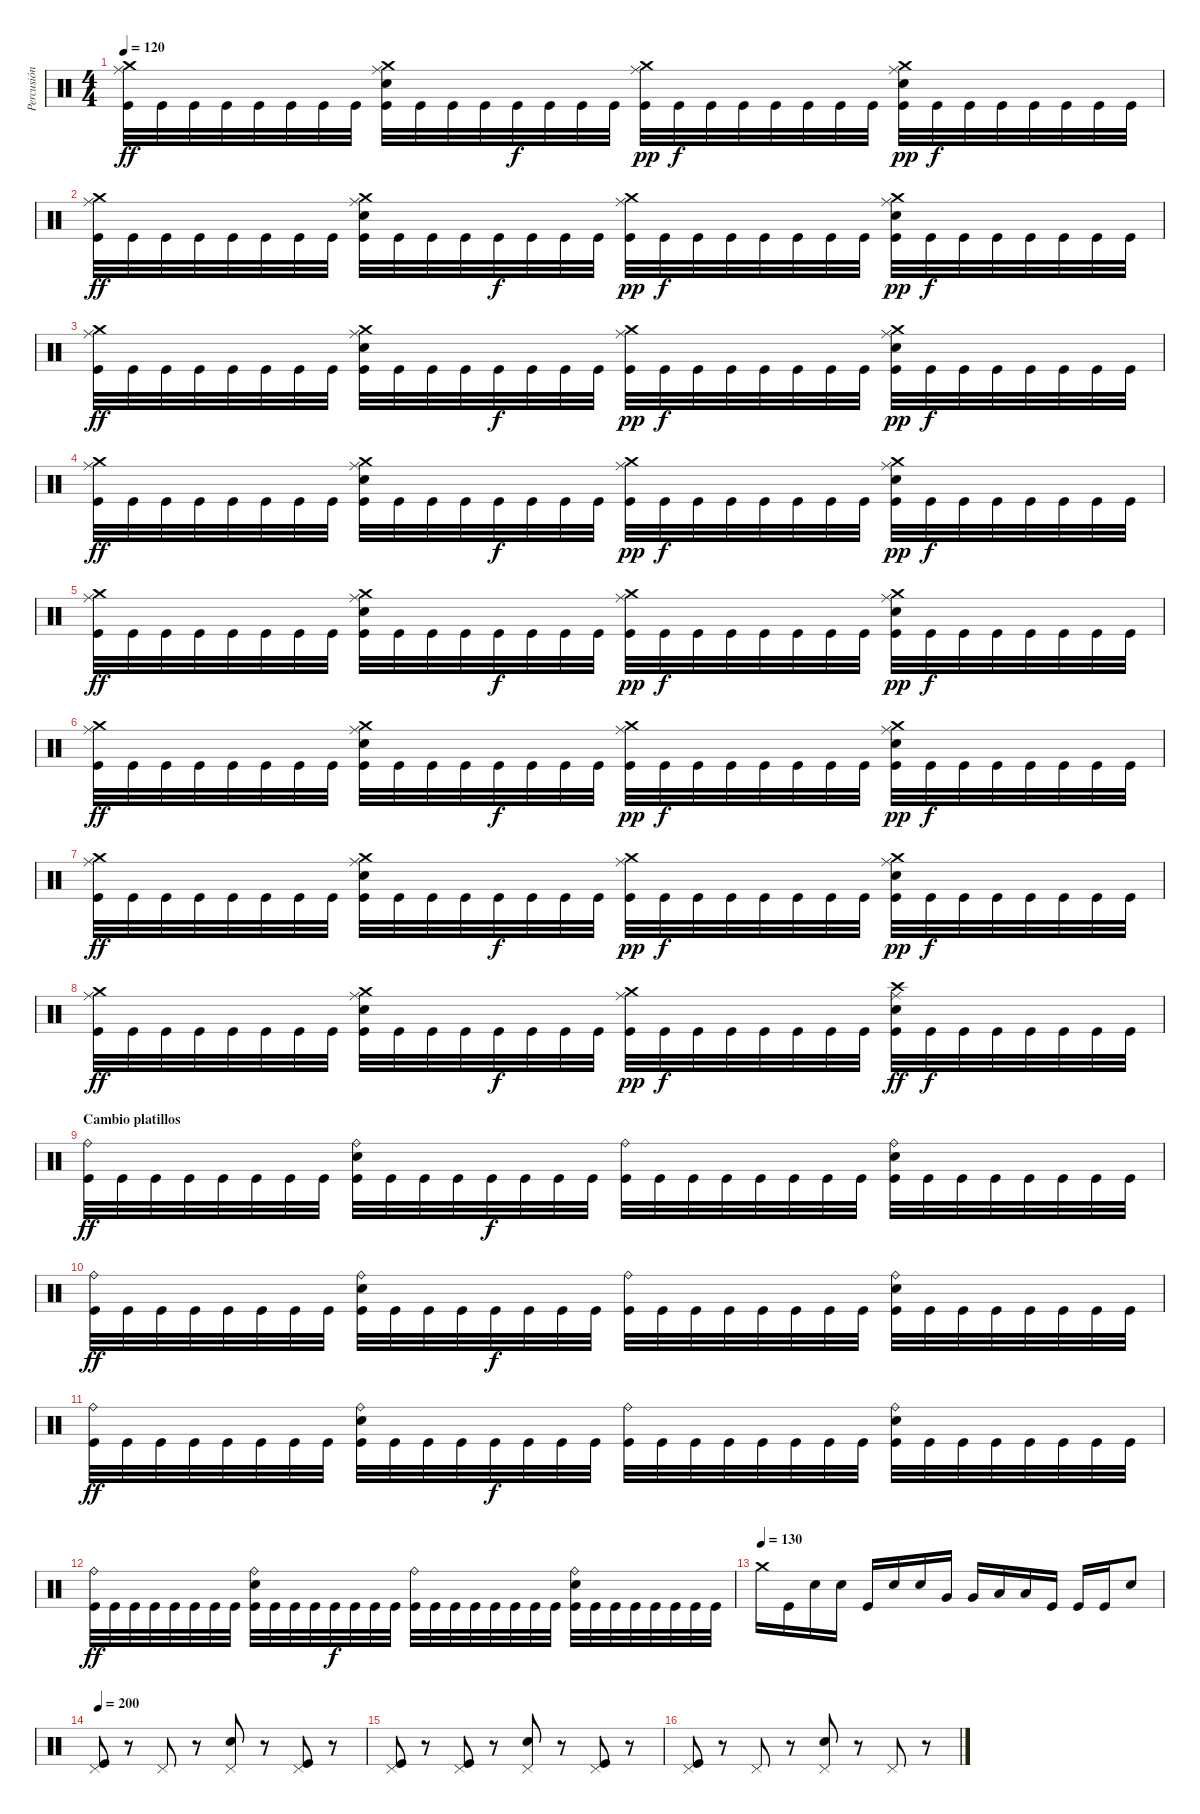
\track ("Percusión" "Percusión") {instrument percussion}
\staff {score}
\articulation defaults
\ts (4 4)
\tempo 120
\clef neutral
\ks c
("Crash medium (hit)" "Ride (middle)" "Kick (hit)").32{dy ff} "Kick (hit)".32 "Kick (hit)".32 "Kick (hit)".32 "Kick (hit)".32 "Kick (hit)".32 "Kick (hit)".32 "Kick (hit)".32 ("Crash medium (hit)" "Ride (middle)" "Kick (hit)" "Snare (hit) 2").32 "Kick (hit)".32 "Kick (hit)".32 "Kick (hit)".32 "Kick (hit)".32{dy f} "Kick (hit)".32 "Kick (hit)".32 "Kick (hit)".32 ("Crash medium (hit)" "Ride (middle)" "Kick (hit)").32{dy pp} "Kick (hit)".32{dy f} "Kick (hit)".32 "Kick (hit)".32 "Kick (hit)".32 "Kick (hit)".32 "Kick (hit)".32 "Kick (hit)".32 ("Crash medium (hit)" "Ride (middle)" "Kick (hit)" "Snare (hit) 2").32{dy pp} "Kick (hit)".32{dy f} "Kick (hit)".32 "Kick (hit)".32 "Kick (hit)".32 "Kick (hit)".32 "Kick (hit)".32 "Kick (hit)".32 |
("Crash medium (hit)" "Ride (middle)" "Kick (hit)").32{dy ff} "Kick (hit)".32 "Kick (hit)".32 "Kick (hit)".32 "Kick (hit)".32 "Kick (hit)".32 "Kick (hit)".32 "Kick (hit)".32 ("Crash medium (hit)" "Ride (middle)" "Kick (hit)" "Snare (hit) 2").32 "Kick (hit)".32 "Kick (hit)".32 "Kick (hit)".32 "Kick (hit)".32{dy f} "Kick (hit)".32 "Kick (hit)".32 "Kick (hit)".32 ("Crash medium (hit)" "Ride (middle)" "Kick (hit)").32{dy pp} "Kick (hit)".32{dy f} "Kick (hit)".32 "Kick (hit)".32 "Kick (hit)".32 "Kick (hit)".32 "Kick (hit)".32 "Kick (hit)".32 ("Crash medium (hit)" "Ride (middle)" "Kick (hit)" "Snare (hit) 2").32{dy pp} "Kick (hit)".32{dy f} "Kick (hit)".32 "Kick (hit)".32 "Kick (hit)".32 "Kick (hit)".32 "Kick (hit)".32 "Kick (hit)".32 |
("Crash medium (hit)" "Ride (middle)" "Kick (hit)").32{dy ff} "Kick (hit)".32 "Kick (hit)".32 "Kick (hit)".32 "Kick (hit)".32 "Kick (hit)".32 "Kick (hit)".32 "Kick (hit)".32 ("Crash medium (hit)" "Ride (middle)" "Kick (hit)" "Snare (hit) 2").32 "Kick (hit)".32 "Kick (hit)".32 "Kick (hit)".32 "Kick (hit)".32{dy f} "Kick (hit)".32 "Kick (hit)".32 "Kick (hit)".32 ("Crash medium (hit)" "Ride (middle)" "Kick (hit)").32{dy pp} "Kick (hit)".32{dy f} "Kick (hit)".32 "Kick (hit)".32 "Kick (hit)".32 "Kick (hit)".32 "Kick (hit)".32 "Kick (hit)".32 ("Crash medium (hit)" "Ride (middle)" "Kick (hit)" "Snare (hit) 2").32{dy pp} "Kick (hit)".32{dy f} "Kick (hit)".32 "Kick (hit)".32 "Kick (hit)".32 "Kick (hit)".32 "Kick (hit)".32 "Kick (hit)".32 |
("Crash medium (hit)" "Ride (middle)" "Kick (hit)").32{dy ff} "Kick (hit)".32 "Kick (hit)".32 "Kick (hit)".32 "Kick (hit)".32 "Kick (hit)".32 "Kick (hit)".32 "Kick (hit)".32 ("Crash medium (hit)" "Ride (middle)" "Kick (hit)" "Snare (hit) 2").32 "Kick (hit)".32 "Kick (hit)".32 "Kick (hit)".32 "Kick (hit)".32{dy f} "Kick (hit)".32 "Kick (hit)".32 "Kick (hit)".32 ("Crash medium (hit)" "Ride (middle)" "Kick (hit)").32{dy pp} "Kick (hit)".32{dy f} "Kick (hit)".32 "Kick (hit)".32 "Kick (hit)".32 "Kick (hit)".32 "Kick (hit)".32 "Kick (hit)".32 ("Crash medium (hit)" "Ride (middle)" "Kick (hit)" "Snare (hit) 2").32{dy pp} "Kick (hit)".32{dy f} "Kick (hit)".32 "Kick (hit)".32 "Kick (hit)".32 "Kick (hit)".32 "Kick (hit)".32 "Kick (hit)".32 |
("Crash medium (hit)" "Ride (middle)" "Kick (hit)").32{dy ff} "Kick (hit)".32 "Kick (hit)".32 "Kick (hit)".32 "Kick (hit)".32 "Kick (hit)".32 "Kick (hit)".32 "Kick (hit)".32 ("Crash medium (hit)" "Ride (middle)" "Kick (hit)" "Snare (hit) 2").32 "Kick (hit)".32 "Kick (hit)".32 "Kick (hit)".32 "Kick (hit)".32{dy f} "Kick (hit)".32 "Kick (hit)".32 "Kick (hit)".32 ("Crash medium (hit)" "Ride (middle)" "Kick (hit)").32{dy pp} "Kick (hit)".32{dy f} "Kick (hit)".32 "Kick (hit)".32 "Kick (hit)".32 "Kick (hit)".32 "Kick (hit)".32 "Kick (hit)".32 ("Crash medium (hit)" "Ride (middle)" "Kick (hit)" "Snare (hit) 2").32{dy pp} "Kick (hit)".32{dy f} "Kick (hit)".32 "Kick (hit)".32 "Kick (hit)".32 "Kick (hit)".32 "Kick (hit)".32 "Kick (hit)".32 |
("Crash medium (hit)" "Ride (middle)" "Kick (hit)").32{dy ff} "Kick (hit)".32 "Kick (hit)".32 "Kick (hit)".32 "Kick (hit)".32 "Kick (hit)".32 "Kick (hit)".32 "Kick (hit)".32 ("Crash medium (hit)" "Ride (middle)" "Kick (hit)" "Snare (hit) 2").32 "Kick (hit)".32 "Kick (hit)".32 "Kick (hit)".32 "Kick (hit)".32{dy f} "Kick (hit)".32 "Kick (hit)".32 "Kick (hit)".32 ("Crash medium (hit)" "Ride (middle)" "Kick (hit)").32{dy pp} "Kick (hit)".32{dy f} "Kick (hit)".32 "Kick (hit)".32 "Kick (hit)".32 "Kick (hit)".32 "Kick (hit)".32 "Kick (hit)".32 ("Crash medium (hit)" "Ride (middle)" "Kick (hit)" "Snare (hit) 2").32{dy pp} "Kick (hit)".32{dy f} "Kick (hit)".32 "Kick (hit)".32 "Kick (hit)".32 "Kick (hit)".32 "Kick (hit)".32 "Kick (hit)".32 |
("Crash medium (hit)" "Ride (middle)" "Kick (hit)").32{dy ff} "Kick (hit)".32 "Kick (hit)".32 "Kick (hit)".32 "Kick (hit)".32 "Kick (hit)".32 "Kick (hit)".32 "Kick (hit)".32 ("Crash medium (hit)" "Ride (middle)" "Kick (hit)" "Snare (hit) 2").32 "Kick (hit)".32 "Kick (hit)".32 "Kick (hit)".32 "Kick (hit)".32{dy f} "Kick (hit)".32 "Kick (hit)".32 "Kick (hit)".32 ("Crash medium (hit)" "Ride (middle)" "Kick (hit)").32{dy pp} "Kick (hit)".32{dy f} "Kick (hit)".32 "Kick (hit)".32 "Kick (hit)".32 "Kick (hit)".32 "Kick (hit)".32 "Kick (hit)".32 ("Crash medium (hit)" "Ride (middle)" "Kick (hit)" "Snare (hit) 2").32{dy pp} "Kick (hit)".32{dy f} "Kick (hit)".32 "Kick (hit)".32 "Kick (hit)".32 "Kick (hit)".32 "Kick (hit)".32 "Kick (hit)".32 |
("Crash medium (hit)" "Ride (middle)" "Kick (hit)").32{dy ff} "Kick (hit)".32 "Kick (hit)".32 "Kick (hit)".32 "Kick (hit)".32 "Kick (hit)".32 "Kick (hit)".32 "Kick (hit)".32 ("Crash medium (hit)" "Ride (middle)" "Kick (hit)" "Snare (hit) 2").32 "Kick (hit)".32 "Kick (hit)".32 "Kick (hit)".32 "Kick (hit)".32{dy f} "Kick (hit)".32 "Kick (hit)".32 "Kick (hit)".32 ("Crash medium (hit)" "Ride (middle)" "Kick (hit)").32{dy pp} "Kick (hit)".32{dy f} "Kick (hit)".32 "Kick (hit)".32 "Kick (hit)".32 "Kick (hit)".32 "Kick (hit)".32 "Kick (hit)".32 ("Crash high (hit)" "Ride (middle)" "Kick (hit)" "Snare (hit) 2").32{dy ff} "Kick (hit)".32{dy f} "Kick (hit)".32 "Kick (hit)".32 "Kick (hit)".32 "Kick (hit)".32 "Kick (hit)".32 "Kick (hit)".32 |
\section ("" "Cambio platillos")
("Ride (bell)" "Kick (hit)").32{dy ff} "Kick (hit)".32 "Kick (hit)".32 "Kick (hit)".32 "Kick (hit)".32 "Kick (hit)".32 "Kick (hit)".32 "Kick (hit)".32 ("Ride (bell)" "Kick (hit)" "Snare (hit) 2").32 "Kick (hit)".32 "Kick (hit)".32 "Kick (hit)".32 "Kick (hit)".32{dy f} "Kick (hit)".32 "Kick (hit)".32 "Kick (hit)".32 ("Ride (bell)" "Kick (hit)").32 "Kick (hit)".32 "Kick (hit)".32 "Kick (hit)".32 "Kick (hit)".32 "Kick (hit)".32 "Kick (hit)".32 "Kick (hit)".32 ("Ride (bell)" "Kick (hit)" "Snare (hit) 2").32 "Kick (hit)".32 "Kick (hit)".32 "Kick (hit)".32 "Kick (hit)".32 "Kick (hit)".32 "Kick (hit)".32 "Kick (hit)".32 |
("Ride (bell)" "Kick (hit)").32{dy ff} "Kick (hit)".32 "Kick (hit)".32 "Kick (hit)".32 "Kick (hit)".32 "Kick (hit)".32 "Kick (hit)".32 "Kick (hit)".32 ("Ride (bell)" "Kick (hit)" "Snare (hit) 2").32 "Kick (hit)".32 "Kick (hit)".32 "Kick (hit)".32 "Kick (hit)".32{dy f} "Kick (hit)".32 "Kick (hit)".32 "Kick (hit)".32 ("Ride (bell)" "Kick (hit)").32 "Kick (hit)".32 "Kick (hit)".32 "Kick (hit)".32 "Kick (hit)".32 "Kick (hit)".32 "Kick (hit)".32 "Kick (hit)".32 ("Ride (bell)" "Kick (hit)" "Snare (hit) 2").32 "Kick (hit)".32 "Kick (hit)".32 "Kick (hit)".32 "Kick (hit)".32 "Kick (hit)".32 "Kick (hit)".32 "Kick (hit)".32 |
("Ride (bell)" "Kick (hit)").32{dy ff} "Kick (hit)".32 "Kick (hit)".32 "Kick (hit)".32 "Kick (hit)".32 "Kick (hit)".32 "Kick (hit)".32 "Kick (hit)".32 ("Ride (bell)" "Kick (hit)" "Snare (hit) 2").32 "Kick (hit)".32 "Kick (hit)".32 "Kick (hit)".32 "Kick (hit)".32{dy f} "Kick (hit)".32 "Kick (hit)".32 "Kick (hit)".32 ("Ride (bell)" "Kick (hit)").32 "Kick (hit)".32 "Kick (hit)".32 "Kick (hit)".32 "Kick (hit)".32 "Kick (hit)".32 "Kick (hit)".32 "Kick (hit)".32 ("Ride (bell)" "Kick (hit)" "Snare (hit) 2").32 "Kick (hit)".32 "Kick (hit)".32 "Kick (hit)".32 "Kick (hit)".32 "Kick (hit)".32 "Kick (hit)".32 "Kick (hit)".32 |
("Ride (bell)" "Kick (hit)").32{dy ff} "Kick (hit)".32 "Kick (hit)".32 "Kick (hit)".32 "Kick (hit)".32 "Kick (hit)".32 "Kick (hit)".32 "Kick (hit)".32 ("Ride (bell)" "Kick (hit)" "Snare (hit) 2").32 "Kick (hit)".32 "Kick (hit)".32 "Kick (hit)".32 "Kick (hit)".32{dy f} "Kick (hit)".32 "Kick (hit)".32 "Kick (hit)".32 ("Ride (bell)" "Kick (hit)").32 "Kick (hit)".32 "Kick (hit)".32 "Kick (hit)".32 "Kick (hit)".32 "Kick (hit)".32 "Kick (hit)".32 "Kick (hit)".32 ("Ride (bell)" "Kick (hit)" "Snare (hit) 2").32 "Kick (hit)".32 "Kick (hit)".32 "Kick (hit)".32 "Kick (hit)".32 "Kick (hit)".32 "Kick (hit)".32 "Kick (hit)".32 |
\tempo (130)
"Crash medium (hit)".16 "Kick (hit)".16 "Snare (hit) 2".16 "Snare (hit) 2".16 "Kick (hit)".16 "Snare (hit) 2".16 "Snare (hit) 2".16 "Very Low Tom (hit)".16 "Very Low Tom (hit)".16 "Low Floor Tom (hit)".16 "Low Floor Tom (hit)".16 "Kick (hit)".16 "Kick (hit)".16 "Kick (hit)".16 "Snare (hit) 2".8 |
\tempo 200
("Pedal Hi-Hat (hit)" "Kick (hit)").8 r.8 "Pedal Hi-Hat (hit)".8 r.8 ("Pedal Hi-Hat (hit)" "Snare (hit) 2").8 r.8 ("Pedal Hi-Hat (hit)" "Kick (hit)").8 r.8 |
("Pedal Hi-Hat (hit)" "Kick (hit)").8 r.8 ("Pedal Hi-Hat (hit)" "Kick (hit)").8 r.8 ("Pedal Hi-Hat (hit)" "Snare (hit) 2").8 r.8 ("Pedal Hi-Hat (hit)" "Kick (hit)").8 r.8 |
("Pedal Hi-Hat (hit)" "Kick (hit)").8 r.8 "Pedal Hi-Hat (hit)".8 r.8 ("Pedal Hi-Hat (hit)" "Snare (hit) 2").8 r.8 "Pedal Hi-Hat (hit)".8 r.8
